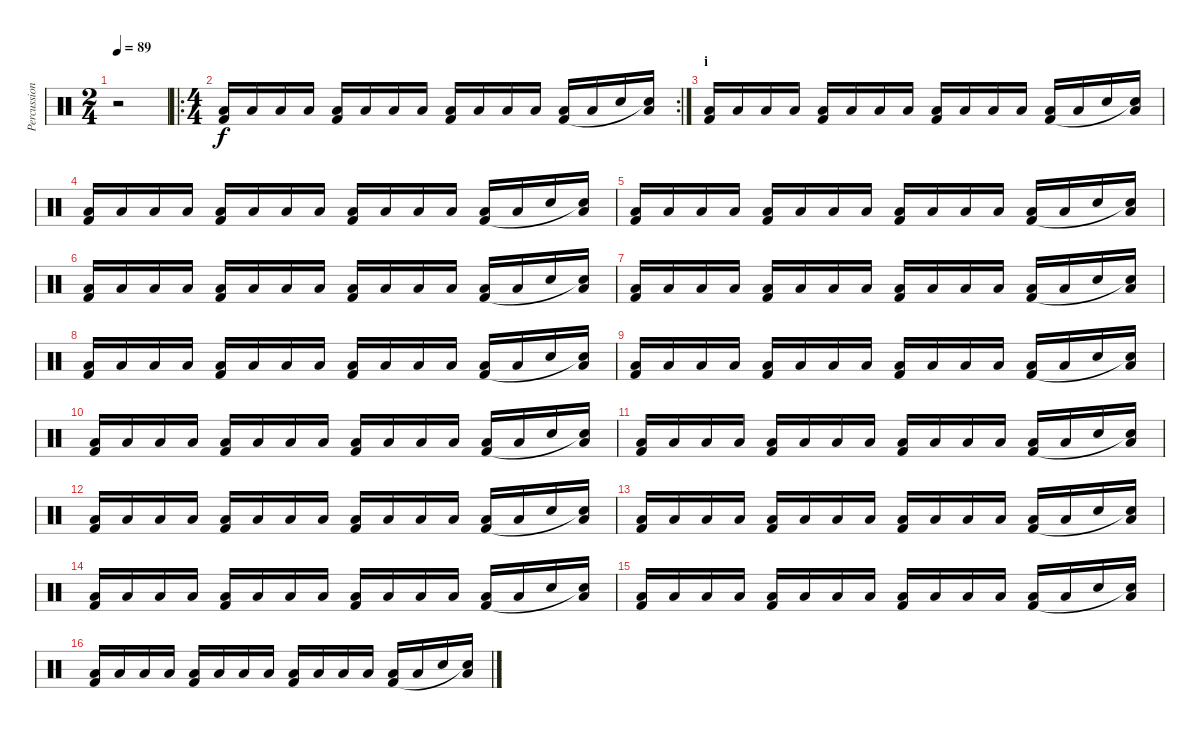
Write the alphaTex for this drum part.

\track ("Percussions" "Percussion") {instrument percussion}
\staff {score}
\articulation defaults
\ts (2 4)
\tempo 89
\clef neutral
\ks c
r.2{dy f} |
\ro
\rc 2
\ts (4 4)
("Low Floor Tom (hit)" "Kick (hit) 2").16 "Low Floor Tom (hit)".16 "Low Floor Tom (hit)".16 "Low Floor Tom (hit)".16 ("Low Floor Tom (hit)" "Kick (hit) 2").16 "Low Floor Tom (hit)".16 "Low Floor Tom (hit)".16 "Low Floor Tom (hit)".16 ("Low Floor Tom (hit)" "Kick (hit) 2").16 "Low Floor Tom (hit)".16 "Low Floor Tom (hit)".16 "Low Floor Tom (hit)".16 ("Low Floor Tom (hit)" "Kick (hit) 2").16 "Low Floor Tom (hit)".16 "Electric Snare (hit)".16 ("Low Floor Tom (hit)" "Snare (hit)"{t}).16 |
\section ("" "i")
("Low Floor Tom (hit)" "Kick (hit) 2").16 "Low Floor Tom (hit)".16 "Low Floor Tom (hit)".16 "Low Floor Tom (hit)".16 ("Low Floor Tom (hit)" "Kick (hit) 2").16 "Low Floor Tom (hit)".16 "Low Floor Tom (hit)".16 "Low Floor Tom (hit)".16 ("Low Floor Tom (hit)" "Kick (hit) 2").16 "Low Floor Tom (hit)".16 "Low Floor Tom (hit)".16 "Low Floor Tom (hit)".16 ("Low Floor Tom (hit)" "Kick (hit) 2").16 "Low Floor Tom (hit)".16 "Electric Snare (hit)".16 ("Low Floor Tom (hit)" "Snare (hit)"{t}).16 |
("Low Floor Tom (hit)" "Kick (hit) 2").16 "Low Floor Tom (hit)".16 "Low Floor Tom (hit)".16 "Low Floor Tom (hit)".16 ("Low Floor Tom (hit)" "Kick (hit) 2").16 "Low Floor Tom (hit)".16 "Low Floor Tom (hit)".16 "Low Floor Tom (hit)".16 ("Low Floor Tom (hit)" "Kick (hit) 2").16 "Low Floor Tom (hit)".16 "Low Floor Tom (hit)".16 "Low Floor Tom (hit)".16 ("Low Floor Tom (hit)" "Kick (hit) 2").16 "Low Floor Tom (hit)".16 "Electric Snare (hit)".16 ("Low Floor Tom (hit)" "Snare (hit)"{t}).16 |
("Low Floor Tom (hit)" "Kick (hit) 2").16 "Low Floor Tom (hit)".16 "Low Floor Tom (hit)".16 "Low Floor Tom (hit)".16 ("Low Floor Tom (hit)" "Kick (hit) 2").16 "Low Floor Tom (hit)".16 "Low Floor Tom (hit)".16 "Low Floor Tom (hit)".16 ("Low Floor Tom (hit)" "Kick (hit) 2").16 "Low Floor Tom (hit)".16 "Low Floor Tom (hit)".16 "Low Floor Tom (hit)".16 ("Low Floor Tom (hit)" "Kick (hit) 2").16 "Low Floor Tom (hit)".16 "Electric Snare (hit)".16 ("Low Floor Tom (hit)" "Snare (hit)"{t}).16 |
("Low Floor Tom (hit)" "Kick (hit) 2").16 "Low Floor Tom (hit)".16 "Low Floor Tom (hit)".16 "Low Floor Tom (hit)".16 ("Low Floor Tom (hit)" "Kick (hit) 2").16 "Low Floor Tom (hit)".16 "Low Floor Tom (hit)".16 "Low Floor Tom (hit)".16 ("Low Floor Tom (hit)" "Kick (hit) 2").16 "Low Floor Tom (hit)".16 "Low Floor Tom (hit)".16 "Low Floor Tom (hit)".16 ("Low Floor Tom (hit)" "Kick (hit) 2").16 "Low Floor Tom (hit)".16 "Electric Snare (hit)".16 ("Low Floor Tom (hit)" "Snare (hit)"{t}).16 |
("Low Floor Tom (hit)" "Kick (hit) 2").16 "Low Floor Tom (hit)".16 "Low Floor Tom (hit)".16 "Low Floor Tom (hit)".16 ("Low Floor Tom (hit)" "Kick (hit) 2").16 "Low Floor Tom (hit)".16 "Low Floor Tom (hit)".16 "Low Floor Tom (hit)".16 ("Low Floor Tom (hit)" "Kick (hit) 2").16 "Low Floor Tom (hit)".16 "Low Floor Tom (hit)".16 "Low Floor Tom (hit)".16 ("Low Floor Tom (hit)" "Kick (hit) 2").16 "Low Floor Tom (hit)".16 "Electric Snare (hit)".16 ("Low Floor Tom (hit)" "Snare (hit)"{t}).16 |
("Low Floor Tom (hit)" "Kick (hit) 2").16 "Low Floor Tom (hit)".16 "Low Floor Tom (hit)".16 "Low Floor Tom (hit)".16 ("Low Floor Tom (hit)" "Kick (hit) 2").16 "Low Floor Tom (hit)".16 "Low Floor Tom (hit)".16 "Low Floor Tom (hit)".16 ("Low Floor Tom (hit)" "Kick (hit) 2").16 "Low Floor Tom (hit)".16 "Low Floor Tom (hit)".16 "Low Floor Tom (hit)".16 ("Low Floor Tom (hit)" "Kick (hit) 2").16 "Low Floor Tom (hit)".16 "Electric Snare (hit)".16 ("Low Floor Tom (hit)" "Snare (hit)"{t}).16 |
("Low Floor Tom (hit)" "Kick (hit) 2").16 "Low Floor Tom (hit)".16 "Low Floor Tom (hit)".16 "Low Floor Tom (hit)".16 ("Low Floor Tom (hit)" "Kick (hit) 2").16 "Low Floor Tom (hit)".16 "Low Floor Tom (hit)".16 "Low Floor Tom (hit)".16 ("Low Floor Tom (hit)" "Kick (hit) 2").16 "Low Floor Tom (hit)".16 "Low Floor Tom (hit)".16 "Low Floor Tom (hit)".16 ("Low Floor Tom (hit)" "Kick (hit) 2").16 "Low Floor Tom (hit)".16 "Electric Snare (hit)".16 ("Low Floor Tom (hit)" "Snare (hit)"{t}).16 |
("Low Floor Tom (hit)" "Kick (hit) 2").16 "Low Floor Tom (hit)".16 "Low Floor Tom (hit)".16 "Low Floor Tom (hit)".16 ("Low Floor Tom (hit)" "Kick (hit) 2").16 "Low Floor Tom (hit)".16 "Low Floor Tom (hit)".16 "Low Floor Tom (hit)".16 ("Low Floor Tom (hit)" "Kick (hit) 2").16 "Low Floor Tom (hit)".16 "Low Floor Tom (hit)".16 "Low Floor Tom (hit)".16 ("Low Floor Tom (hit)" "Kick (hit) 2").16 "Low Floor Tom (hit)".16 "Electric Snare (hit)".16 ("Low Floor Tom (hit)" "Snare (hit)"{t}).16 |
("Low Floor Tom (hit)" "Kick (hit) 2").16 "Low Floor Tom (hit)".16 "Low Floor Tom (hit)".16 "Low Floor Tom (hit)".16 ("Low Floor Tom (hit)" "Kick (hit) 2").16 "Low Floor Tom (hit)".16 "Low Floor Tom (hit)".16 "Low Floor Tom (hit)".16 ("Low Floor Tom (hit)" "Kick (hit) 2").16 "Low Floor Tom (hit)".16 "Low Floor Tom (hit)".16 "Low Floor Tom (hit)".16 ("Low Floor Tom (hit)" "Kick (hit) 2").16 "Low Floor Tom (hit)".16 "Electric Snare (hit)".16 ("Low Floor Tom (hit)" "Snare (hit)"{t}).16 |
("Low Floor Tom (hit)" "Kick (hit) 2").16 "Low Floor Tom (hit)".16 "Low Floor Tom (hit)".16 "Low Floor Tom (hit)".16 ("Low Floor Tom (hit)" "Kick (hit) 2").16 "Low Floor Tom (hit)".16 "Low Floor Tom (hit)".16 "Low Floor Tom (hit)".16 ("Low Floor Tom (hit)" "Kick (hit) 2").16 "Low Floor Tom (hit)".16 "Low Floor Tom (hit)".16 "Low Floor Tom (hit)".16 ("Low Floor Tom (hit)" "Kick (hit) 2").16 "Low Floor Tom (hit)".16 "Electric Snare (hit)".16 ("Low Floor Tom (hit)" "Snare (hit)"{t}).16 |
("Low Floor Tom (hit)" "Kick (hit) 2").16 "Low Floor Tom (hit)".16 "Low Floor Tom (hit)".16 "Low Floor Tom (hit)".16 ("Low Floor Tom (hit)" "Kick (hit) 2").16 "Low Floor Tom (hit)".16 "Low Floor Tom (hit)".16 "Low Floor Tom (hit)".16 ("Low Floor Tom (hit)" "Kick (hit) 2").16 "Low Floor Tom (hit)".16 "Low Floor Tom (hit)".16 "Low Floor Tom (hit)".16 ("Low Floor Tom (hit)" "Kick (hit) 2").16 "Low Floor Tom (hit)".16 "Electric Snare (hit)".16 ("Low Floor Tom (hit)" "Snare (hit)"{t}).16 |
("Low Floor Tom (hit)" "Kick (hit) 2").16 "Low Floor Tom (hit)".16 "Low Floor Tom (hit)".16 "Low Floor Tom (hit)".16 ("Low Floor Tom (hit)" "Kick (hit) 2").16 "Low Floor Tom (hit)".16 "Low Floor Tom (hit)".16 "Low Floor Tom (hit)".16 ("Low Floor Tom (hit)" "Kick (hit) 2").16 "Low Floor Tom (hit)".16 "Low Floor Tom (hit)".16 "Low Floor Tom (hit)".16 ("Low Floor Tom (hit)" "Kick (hit) 2").16 "Low Floor Tom (hit)".16 "Electric Snare (hit)".16 ("Low Floor Tom (hit)" "Snare (hit)"{t}).16 |
("Low Floor Tom (hit)" "Kick (hit) 2").16 "Low Floor Tom (hit)".16 "Low Floor Tom (hit)".16 "Low Floor Tom (hit)".16 ("Low Floor Tom (hit)" "Kick (hit) 2").16 "Low Floor Tom (hit)".16 "Low Floor Tom (hit)".16 "Low Floor Tom (hit)".16 ("Low Floor Tom (hit)" "Kick (hit) 2").16 "Low Floor Tom (hit)".16 "Low Floor Tom (hit)".16 "Low Floor Tom (hit)".16 ("Low Floor Tom (hit)" "Kick (hit) 2").16 "Low Floor Tom (hit)".16 "Electric Snare (hit)".16 ("Low Floor Tom (hit)" "Snare (hit)"{t}).16 |
("Low Floor Tom (hit)" "Kick (hit) 2").16 "Low Floor Tom (hit)".16 "Low Floor Tom (hit)".16 "Low Floor Tom (hit)".16 ("Low Floor Tom (hit)" "Kick (hit) 2").16 "Low Floor Tom (hit)".16 "Low Floor Tom (hit)".16 "Low Floor Tom (hit)".16 ("Low Floor Tom (hit)" "Kick (hit) 2").16 "Low Floor Tom (hit)".16 "Low Floor Tom (hit)".16 "Low Floor Tom (hit)".16 ("Low Floor Tom (hit)" "Kick (hit) 2").16 "Low Floor Tom (hit)".16 "Electric Snare (hit)".16 ("Low Floor Tom (hit)" "Snare (hit)"{t}).16
